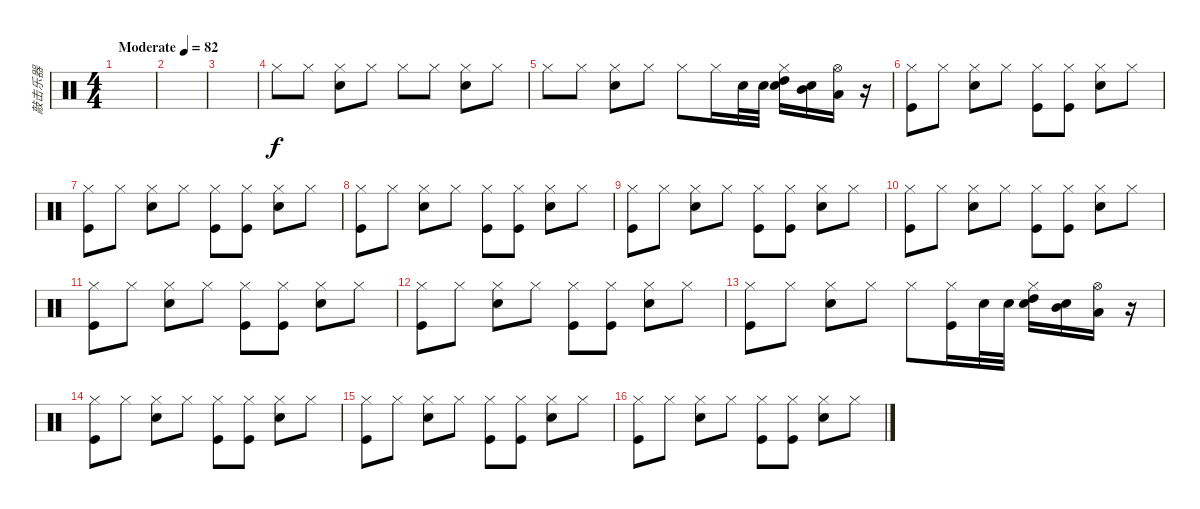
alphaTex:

\track ("敲击乐器" "敲击乐器") {instrument percussion}
\staff {score}
\articulation defaults
\ts (4 4)
\section ("" "")
\tempo (82 "Moderate")
\clef neutral
\ks c
|
|
|
"Hi-Hat (closed)".8 "Hi-Hat (closed)".8 ("Hi-Hat (closed)" "Snare (hit) 2").8 "Hi-Hat (closed)".8 "Hi-Hat (closed)".8 "Hi-Hat (closed)".8 ("Hi-Hat (closed)" "Snare (hit) 2").8 "Hi-Hat (closed)".8 |
"Hi-Hat (closed)".8 "Hi-Hat (closed)".8 ("Hi-Hat (closed)" "Snare (hit) 2").8 "Hi-Hat (closed)".8 "Hi-Hat (closed)".8 "Hi-Hat (closed)".16 "Snare (hit) 2".32 "Snare (hit) 2".32 ("Hi-Hat (closed)" "High Tom (hit)" "Snare (hit) 2").16 ("Mid Tom (hit)" "Snare (hit) 2").16 ("Hi-Hat (open)" "Low Tom (hit)").16 r.16 |
("Hi-Hat (closed)" "Kick (hit)").8 "Hi-Hat (closed)".8 ("Hi-Hat (closed)" "Snare (hit) 2").8 "Hi-Hat (closed)".8 ("Hi-Hat (closed)" "Kick (hit)").8 ("Hi-Hat (closed)" "Kick (hit)").8 ("Hi-Hat (closed)" "Snare (hit) 2").8 "Hi-Hat (closed)".8 |
("Hi-Hat (closed)" "Kick (hit)").8 "Hi-Hat (closed)".8 ("Hi-Hat (closed)" "Snare (hit) 2").8 "Hi-Hat (closed)".8 ("Hi-Hat (closed)" "Kick (hit)").8 ("Hi-Hat (closed)" "Kick (hit)").8 ("Hi-Hat (closed)" "Snare (hit) 2").8 "Hi-Hat (closed)".8 |
("Hi-Hat (closed)" "Kick (hit)").8 "Hi-Hat (closed)".8 ("Hi-Hat (closed)" "Snare (hit) 2").8 "Hi-Hat (closed)".8 ("Hi-Hat (closed)" "Kick (hit)").8 ("Hi-Hat (closed)" "Kick (hit)").8 ("Hi-Hat (closed)" "Snare (hit) 2").8 "Hi-Hat (closed)".8 |
("Hi-Hat (closed)" "Kick (hit)").8 "Hi-Hat (closed)".8 ("Hi-Hat (closed)" "Snare (hit) 2").8 "Hi-Hat (closed)".8 ("Hi-Hat (closed)" "Kick (hit)").8 ("Hi-Hat (closed)" "Kick (hit)").8 ("Hi-Hat (closed)" "Snare (hit) 2").8 "Hi-Hat (closed)".8 |
("Hi-Hat (closed)" "Kick (hit)").8 "Hi-Hat (closed)".8 ("Hi-Hat (closed)" "Snare (hit) 2").8 "Hi-Hat (closed)".8 ("Hi-Hat (closed)" "Kick (hit)").8 ("Hi-Hat (closed)" "Kick (hit)").8 ("Hi-Hat (closed)" "Snare (hit) 2").8 "Hi-Hat (closed)".8 |
("Hi-Hat (closed)" "Kick (hit)").8 "Hi-Hat (closed)".8 ("Hi-Hat (closed)" "Snare (hit) 2").8 "Hi-Hat (closed)".8 ("Hi-Hat (closed)" "Kick (hit)").8 ("Hi-Hat (closed)" "Kick (hit)").8 ("Hi-Hat (closed)" "Snare (hit) 2").8 "Hi-Hat (closed)".8 |
("Hi-Hat (closed)" "Kick (hit)").8 "Hi-Hat (closed)".8 ("Hi-Hat (closed)" "Snare (hit) 2").8 "Hi-Hat (closed)".8 ("Hi-Hat (closed)" "Kick (hit)").8 ("Hi-Hat (closed)" "Kick (hit)").8 ("Hi-Hat (closed)" "Snare (hit) 2").8 "Hi-Hat (closed)".8 |
("Hi-Hat (closed)" "Kick (hit)").8 "Hi-Hat (closed)".8 ("Hi-Hat (closed)" "Snare (hit) 2").8 "Hi-Hat (closed)".8 "Hi-Hat (closed)".8 ("Hi-Hat (closed)" "Kick (hit)").16 "Snare (hit) 2".32 "Snare (hit) 2".32 ("Hi-Hat (closed)" "High Tom (hit)" "Snare (hit) 2").16 ("Mid Tom (hit)" "Snare (hit) 2").16 ("Hi-Hat (open)" "Low Tom (hit)").16 r.16 |
("Hi-Hat (closed)" "Kick (hit)").8 "Hi-Hat (closed)".8 ("Hi-Hat (closed)" "Snare (hit) 2").8 "Hi-Hat (closed)".8 ("Hi-Hat (closed)" "Kick (hit)").8 ("Hi-Hat (closed)" "Kick (hit)").8 ("Hi-Hat (closed)" "Snare (hit) 2").8 "Hi-Hat (closed)".8 |
("Hi-Hat (closed)" "Kick (hit)").8 "Hi-Hat (closed)".8 ("Hi-Hat (closed)" "Snare (hit) 2").8 "Hi-Hat (closed)".8 ("Hi-Hat (closed)" "Kick (hit)").8 ("Hi-Hat (closed)" "Kick (hit)").8 ("Hi-Hat (closed)" "Snare (hit) 2").8 "Hi-Hat (closed)".8 |
("Hi-Hat (closed)" "Kick (hit)").8 "Hi-Hat (closed)".8 ("Hi-Hat (closed)" "Snare (hit) 2").8 "Hi-Hat (closed)".8 ("Hi-Hat (closed)" "Kick (hit)").8 ("Hi-Hat (closed)" "Kick (hit)").8 ("Hi-Hat (closed)" "Snare (hit) 2").8 "Hi-Hat (closed)".8
